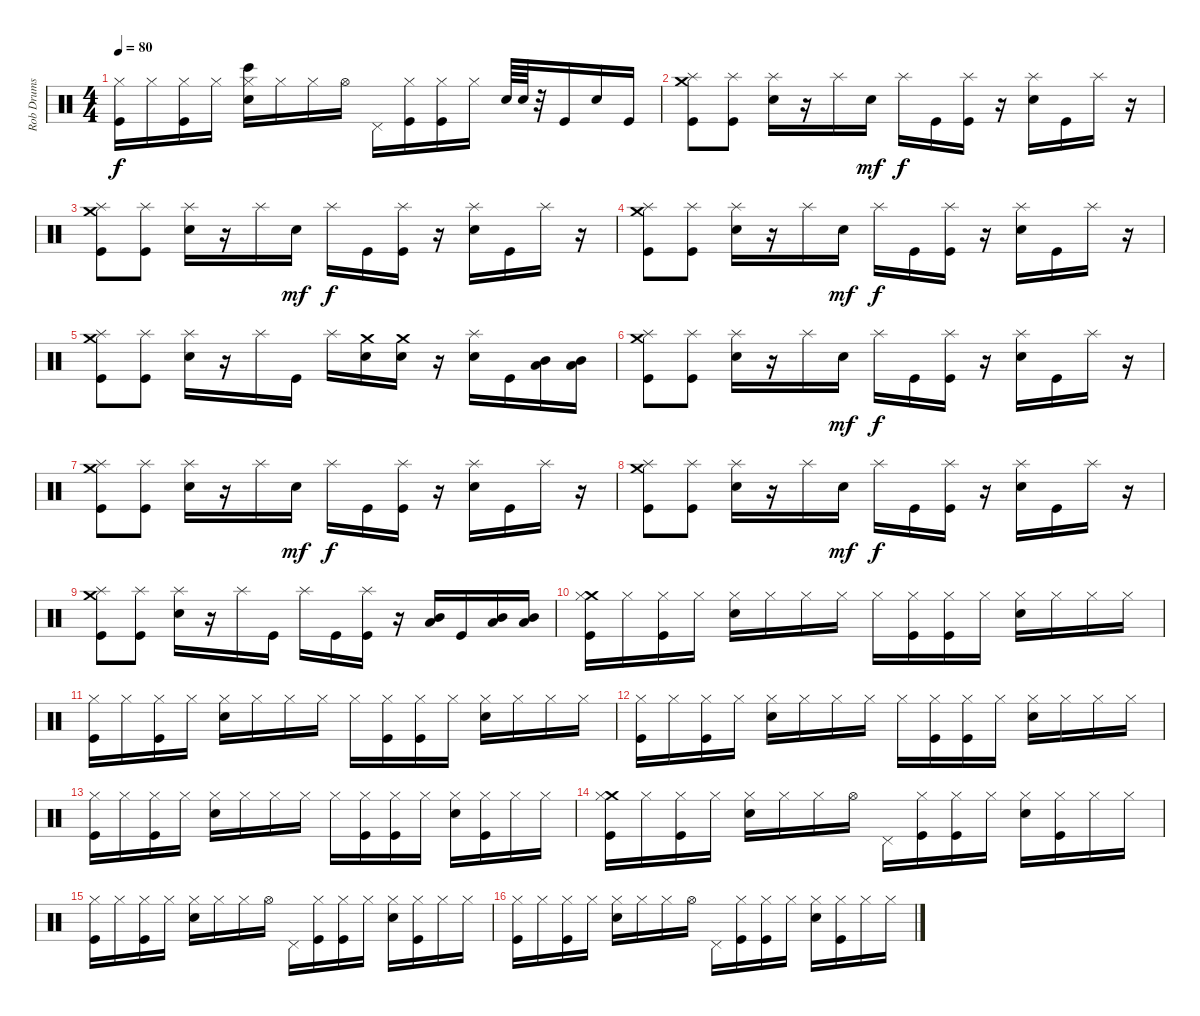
\track ("Rob Drums" "Rob Drums") {instrument percussion}
\staff {score}
\articulation defaults
\ts (4 4)
\tempo 80
\clef neutral
\ks c
("Hi-Hat (closed)" "Kick (hit)").16{dy f} "Hi-Hat (closed)".16 ("Hi-Hat (closed)" "Kick (hit)").16 "Hi-Hat (closed)".16 ("Hi-Hat (closed)" "Bongo High (hit)" "Snare (hit) 2").16 "Hi-Hat (closed)".16 "Hi-Hat (closed)".16 "Hi-Hat (open)".16 "Pedal Hi-Hat (hit)".16 ("Hi-Hat (closed)" "Kick (hit)").16 ("Hi-Hat (closed)" "Kick (hit)").16 "Hi-Hat (closed)".16 "Snare (hit) 2".64 "Snare (hit) 2".64 r.32 "Kick (hit)".16 "Snare (hit) 2".16 "Kick (hit)".16 |
("Crash medium (hit)" "Splash (hit)" "Kick (hit)").8 ("Splash (hit)" "Kick (hit)").8 ("Splash (hit)" "Snare (hit) 2").16 r.16 "Splash (hit)".16 "Snare (hit) 2".16{dy mf} "Splash (hit)".16{dy f} "Kick (hit)".16 ("Splash (hit)" "Kick (hit)").16 r.16 ("Splash (hit)" "Snare (hit) 2").16 "Kick (hit)".16 "Splash (hit)".16 r.16 |
("Crash medium (hit)" "Splash (hit)" "Kick (hit)").8 ("Splash (hit)" "Kick (hit)").8 ("Splash (hit)" "Snare (hit) 2").16 r.16 "Splash (hit)".16 "Snare (hit) 2".16{dy mf} "Splash (hit)".16{dy f} "Kick (hit)".16 ("Splash (hit)" "Kick (hit)").16 r.16 ("Splash (hit)" "Snare (hit) 2").16 "Kick (hit)".16 "Splash (hit)".16 r.16 |
("Crash medium (hit)" "Splash (hit)" "Kick (hit)").8 ("Splash (hit)" "Kick (hit)").8 ("Splash (hit)" "Snare (hit) 2").16 r.16 "Splash (hit)".16 "Snare (hit) 2".16{dy mf} "Splash (hit)".16{dy f} "Kick (hit)".16 ("Splash (hit)" "Kick (hit)").16 r.16 ("Splash (hit)" "Snare (hit) 2").16 "Kick (hit)".16 "Splash (hit)".16 r.16 |
("Crash medium (hit)" "Splash (hit)" "Kick (hit)").8 ("Splash (hit)" "Kick (hit)").8 ("Splash (hit)" "Snare (hit) 2").16 r.16 "Splash (hit)".16 "Kick (hit)".16 "Splash (hit)".16 ("Crash medium (hit)" "Snare (hit) 2").16 ("Crash medium (hit)" "Snare (hit) 2").16 r.16 ("Splash (hit)" "Snare (hit) 2").16 "Kick (hit)".16 ("Mid Tom (hit)" "Low Tom (hit)").16 ("Mid Tom (hit)" "Low Tom (hit)").16 |
("Crash medium (hit)" "Splash (hit)" "Kick (hit)").8 ("Splash (hit)" "Kick (hit)").8 ("Splash (hit)" "Snare (hit) 2").16 r.16 "Splash (hit)".16 "Snare (hit) 2".16{dy mf} "Splash (hit)".16{dy f} "Kick (hit)".16 ("Splash (hit)" "Kick (hit)").16 r.16 ("Splash (hit)" "Snare (hit) 2").16 "Kick (hit)".16 "Splash (hit)".16 r.16 |
("Crash medium (hit)" "Splash (hit)" "Kick (hit)").8 ("Splash (hit)" "Kick (hit)").8 ("Splash (hit)" "Snare (hit) 2").16 r.16 "Splash (hit)".16 "Snare (hit) 2".16{dy mf} "Splash (hit)".16{dy f} "Kick (hit)".16 ("Splash (hit)" "Kick (hit)").16 r.16 ("Splash (hit)" "Snare (hit) 2").16 "Kick (hit)".16 "Splash (hit)".16 r.16 |
("Crash medium (hit)" "Splash (hit)" "Kick (hit)").8 ("Splash (hit)" "Kick (hit)").8 ("Splash (hit)" "Snare (hit) 2").16 r.16 "Splash (hit)".16 "Snare (hit) 2".16{dy mf} "Splash (hit)".16{dy f} "Kick (hit)".16 ("Splash (hit)" "Kick (hit)").16 r.16 ("Splash (hit)" "Snare (hit) 2").16 "Kick (hit)".16 "Splash (hit)".16 r.16 |
("Crash medium (hit)" "Splash (hit)" "Kick (hit)").8 ("Splash (hit)" "Kick (hit)").8 ("Splash (hit)" "Snare (hit) 2").16 r.16 "Splash (hit)".16 "Kick (hit)".16 "Splash (hit)".16 "Kick (hit)".16 ("Splash (hit)" "Kick (hit)").16 r.16 ("Mid Tom (hit)" "Low Tom (hit)").16 "Kick (hit)".16 ("Mid Tom (hit)" "Low Tom (hit)").16 ("Mid Tom (hit)" "Low Tom (hit)").16 |
("Crash medium (hit)" "Hi-Hat (closed)" "Kick (hit)").16 "Hi-Hat (closed)".16 ("Hi-Hat (closed)" "Kick (hit)").16 "Hi-Hat (closed)".16 ("Hi-Hat (closed)" "Snare (hit) 2").16 "Hi-Hat (closed)".16 "Hi-Hat (closed)".16 "Hi-Hat (closed)".16 "Hi-Hat (closed)".16 ("Hi-Hat (closed)" "Kick (hit)").16 ("Hi-Hat (closed)" "Kick (hit)").16 "Hi-Hat (closed)".16 ("Hi-Hat (closed)" "Snare (hit) 2").16 "Hi-Hat (closed)".16 "Hi-Hat (closed)".16 "Hi-Hat (closed)".16 |
("Hi-Hat (closed)" "Kick (hit)").16 "Hi-Hat (closed)".16 ("Hi-Hat (closed)" "Kick (hit)").16 "Hi-Hat (closed)".16 ("Hi-Hat (closed)" "Snare (hit) 2").16 "Hi-Hat (closed)".16 "Hi-Hat (closed)".16 "Hi-Hat (closed)".16 "Hi-Hat (closed)".16 ("Hi-Hat (closed)" "Kick (hit)").16 ("Hi-Hat (closed)" "Kick (hit)").16 "Hi-Hat (closed)".16 ("Hi-Hat (closed)" "Snare (hit) 2").16 "Hi-Hat (closed)".16 "Hi-Hat (closed)".16 "Hi-Hat (closed)".16 |
("Hi-Hat (closed)" "Kick (hit)").16 "Hi-Hat (closed)".16 ("Hi-Hat (closed)" "Kick (hit)").16 "Hi-Hat (closed)".16 ("Hi-Hat (closed)" "Snare (hit) 2").16 "Hi-Hat (closed)".16 "Hi-Hat (closed)".16 "Hi-Hat (closed)".16 "Hi-Hat (closed)".16 ("Hi-Hat (closed)" "Kick (hit)").16 ("Hi-Hat (closed)" "Kick (hit)").16 "Hi-Hat (closed)".16 ("Hi-Hat (closed)" "Snare (hit) 2").16 "Hi-Hat (closed)".16 "Hi-Hat (closed)".16 "Hi-Hat (closed)".16 |
("Hi-Hat (closed)" "Kick (hit)").16 "Hi-Hat (closed)".16 ("Hi-Hat (closed)" "Kick (hit)").16 "Hi-Hat (closed)".16 ("Hi-Hat (closed)" "Snare (hit) 2").16 "Hi-Hat (closed)".16 "Hi-Hat (closed)".16 "Hi-Hat (closed)".16 "Hi-Hat (closed)".16 ("Hi-Hat (closed)" "Kick (hit)").16 ("Hi-Hat (closed)" "Kick (hit)").16 "Hi-Hat (closed)".16 ("Hi-Hat (closed)" "Snare (hit) 2").16 ("Hi-Hat (closed)" "Kick (hit)").16 "Hi-Hat (closed)".16 "Hi-Hat (closed)".16 |
("Crash medium (hit)" "Hi-Hat (closed)" "Kick (hit)").16 "Hi-Hat (closed)".16 ("Hi-Hat (closed)" "Kick (hit)").16 "Hi-Hat (closed)".16 ("Hi-Hat (closed)" "Snare (hit) 2").16 "Hi-Hat (closed)".16 "Hi-Hat (closed)".16 "Hi-Hat (open)".16 "Pedal Hi-Hat (hit)".16 ("Hi-Hat (closed)" "Kick (hit)").16 ("Hi-Hat (closed)" "Kick (hit)").16 "Hi-Hat (closed)".16 ("Hi-Hat (closed)" "Snare (hit) 2").16 ("Hi-Hat (closed)" "Kick (hit)").16 "Hi-Hat (closed)".16 "Hi-Hat (closed)".16 |
("Hi-Hat (closed)" "Kick (hit)").16 "Hi-Hat (closed)".16 ("Hi-Hat (closed)" "Kick (hit)").16 "Hi-Hat (closed)".16 ("Hi-Hat (closed)" "Snare (hit) 2").16 "Hi-Hat (closed)".16 "Hi-Hat (closed)".16 "Hi-Hat (open)".16 "Pedal Hi-Hat (hit)".16 ("Hi-Hat (closed)" "Kick (hit)").16 ("Hi-Hat (closed)" "Kick (hit)").16 "Hi-Hat (closed)".16 ("Hi-Hat (closed)" "Snare (hit) 2").16 ("Hi-Hat (closed)" "Kick (hit)").16 "Hi-Hat (closed)".16 "Hi-Hat (closed)".16 |
("Hi-Hat (closed)" "Kick (hit)").16 "Hi-Hat (closed)".16 ("Hi-Hat (closed)" "Kick (hit)").16 "Hi-Hat (closed)".16 ("Hi-Hat (closed)" "Snare (hit) 2").16 "Hi-Hat (closed)".16 "Hi-Hat (closed)".16 "Hi-Hat (open)".16 "Pedal Hi-Hat (hit)".16 ("Hi-Hat (closed)" "Kick (hit)").16 ("Hi-Hat (closed)" "Kick (hit)").16 "Hi-Hat (closed)".16 ("Hi-Hat (closed)" "Snare (hit) 2").16 ("Hi-Hat (closed)" "Kick (hit)").16 "Hi-Hat (closed)".16 "Hi-Hat (closed)".16
